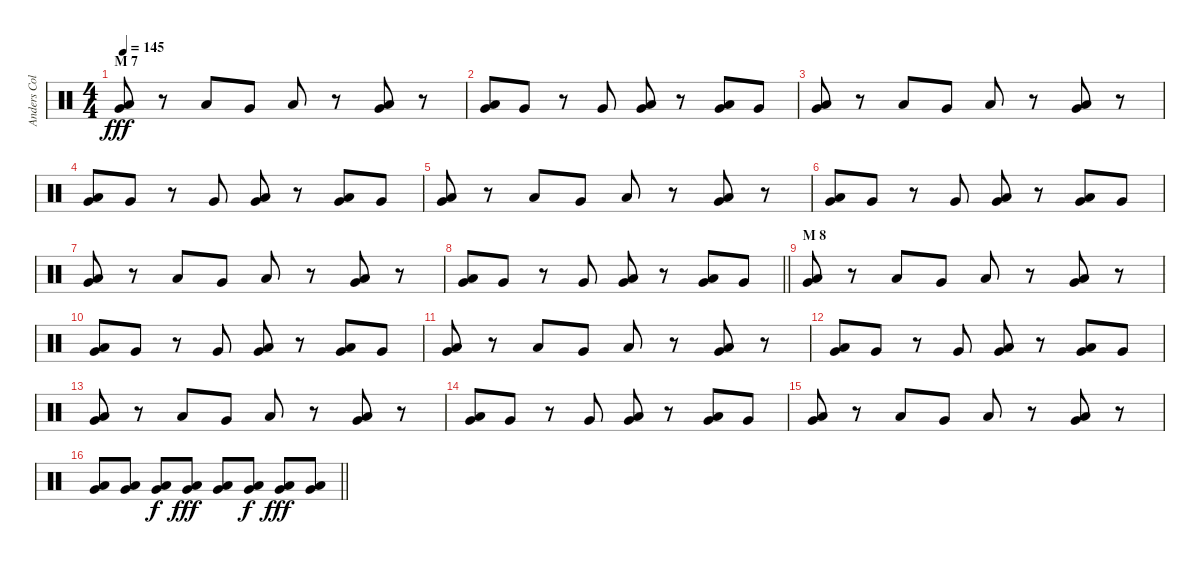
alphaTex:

\track ("Anders Colsefni" "Anders Col") {instrument percussion}
\staff {score}
\articulation defaults
\ts (4 4)
\section ("" "M 7")
\tempo 145
\clef neutral
\ks c
("Very Low Tom (hit)" "Low Floor Tom (hit)").8{dy fff} r.8 "Low Floor Tom (hit)".8 "Very Low Tom (hit)".8 "Low Floor Tom (hit)".8 r.8 ("Very Low Tom (hit)" "Low Floor Tom (hit)").8 r.8 |
("Very Low Tom (hit)" "Low Floor Tom (hit)").8 "Very Low Tom (hit)".8 r.8 "Very Low Tom (hit)".8 ("Very Low Tom (hit)" "Low Floor Tom (hit)").8 r.8 ("Very Low Tom (hit)" "Low Floor Tom (hit)").8 "Very Low Tom (hit)".8 |
("Very Low Tom (hit)" "Low Floor Tom (hit)").8 r.8 "Low Floor Tom (hit)".8 "Very Low Tom (hit)".8 "Low Floor Tom (hit)".8 r.8 ("Very Low Tom (hit)" "Low Floor Tom (hit)").8 r.8 |
("Very Low Tom (hit)" "Low Floor Tom (hit)").8 "Very Low Tom (hit)".8 r.8 "Very Low Tom (hit)".8 ("Very Low Tom (hit)" "Low Floor Tom (hit)").8 r.8 ("Very Low Tom (hit)" "Low Floor Tom (hit)").8 "Very Low Tom (hit)".8 |
("Very Low Tom (hit)" "Low Floor Tom (hit)").8 r.8 "Low Floor Tom (hit)".8 "Very Low Tom (hit)".8 "Low Floor Tom (hit)".8 r.8 ("Very Low Tom (hit)" "Low Floor Tom (hit)").8 r.8 |
("Very Low Tom (hit)" "Low Floor Tom (hit)").8 "Very Low Tom (hit)".8 r.8 "Very Low Tom (hit)".8 ("Very Low Tom (hit)" "Low Floor Tom (hit)").8 r.8 ("Very Low Tom (hit)" "Low Floor Tom (hit)").8 "Very Low Tom (hit)".8 |
("Very Low Tom (hit)" "Low Floor Tom (hit)").8 r.8 "Low Floor Tom (hit)".8 "Very Low Tom (hit)".8 "Low Floor Tom (hit)".8 r.8 ("Very Low Tom (hit)" "Low Floor Tom (hit)").8 r.8 |
\barLineRight lightlight
("Very Low Tom (hit)" "Low Floor Tom (hit)").8 "Very Low Tom (hit)".8 r.8 "Very Low Tom (hit)".8 ("Very Low Tom (hit)" "Low Floor Tom (hit)").8 r.8 ("Very Low Tom (hit)" "Low Floor Tom (hit)").8 "Very Low Tom (hit)".8 |
\section ("" "M 8")
("Very Low Tom (hit)" "Low Floor Tom (hit)").8 r.8 "Low Floor Tom (hit)".8 "Very Low Tom (hit)".8 "Low Floor Tom (hit)".8 r.8 ("Very Low Tom (hit)" "Low Floor Tom (hit)").8 r.8 |
("Very Low Tom (hit)" "Low Floor Tom (hit)").8 "Very Low Tom (hit)".8 r.8 "Very Low Tom (hit)".8 ("Very Low Tom (hit)" "Low Floor Tom (hit)").8 r.8 ("Very Low Tom (hit)" "Low Floor Tom (hit)").8 "Very Low Tom (hit)".8 |
("Very Low Tom (hit)" "Low Floor Tom (hit)").8 r.8 "Low Floor Tom (hit)".8 "Very Low Tom (hit)".8 "Low Floor Tom (hit)".8 r.8 ("Very Low Tom (hit)" "Low Floor Tom (hit)").8 r.8 |
("Very Low Tom (hit)" "Low Floor Tom (hit)").8 "Very Low Tom (hit)".8 r.8 "Very Low Tom (hit)".8 ("Very Low Tom (hit)" "Low Floor Tom (hit)").8 r.8 ("Very Low Tom (hit)" "Low Floor Tom (hit)").8 "Very Low Tom (hit)".8 |
("Very Low Tom (hit)" "Low Floor Tom (hit)").8 r.8 "Low Floor Tom (hit)".8 "Very Low Tom (hit)".8 "Low Floor Tom (hit)".8 r.8 ("Very Low Tom (hit)" "Low Floor Tom (hit)").8 r.8 |
("Very Low Tom (hit)" "Low Floor Tom (hit)").8 "Very Low Tom (hit)".8 r.8 "Very Low Tom (hit)".8 ("Very Low Tom (hit)" "Low Floor Tom (hit)").8 r.8 ("Very Low Tom (hit)" "Low Floor Tom (hit)").8 "Very Low Tom (hit)".8 |
("Very Low Tom (hit)" "Low Floor Tom (hit)").8 r.8 "Low Floor Tom (hit)".8 "Very Low Tom (hit)".8 "Low Floor Tom (hit)".8 r.8 ("Very Low Tom (hit)" "Low Floor Tom (hit)").8 r.8 |
\barLineRight lightlight
("Very Low Tom (hit)" "Low Floor Tom (hit)").8 ("Very Low Tom (hit)" "Low Floor Tom (hit)").8 ("Very Low Tom (hit)" "Low Floor Tom (hit)").8{dy f} ("Very Low Tom (hit)" "Low Floor Tom (hit)").8{dy fff} ("Very Low Tom (hit)" "Low Floor Tom (hit)").8 ("Very Low Tom (hit)" "Low Floor Tom (hit)").8{dy f} ("Very Low Tom (hit)" "Low Floor Tom (hit)").8{dy fff} ("Very Low Tom (hit)" "Low Floor Tom (hit)").8
